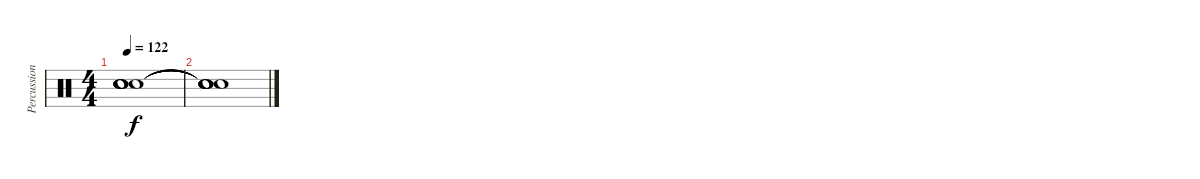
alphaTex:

\track ("Percussion" "Percussion") {instrument percussion}
\staff {score}
\articulation defaults
\ts (4 4)
\tempo 122
\clef neutral
\ks c
("Snare (hit)"{t} "Snare (hit)"{t} "Snare (hit)"{t} "Snare (hit)"{t} "Snare (hit)"{t}).1{dy f} |
("Snare (hit)"{t} "Snare (hit)"{t} "Snare (hit)"{t} "Snare (hit)"{t} "Snare (hit)"{t}).1
